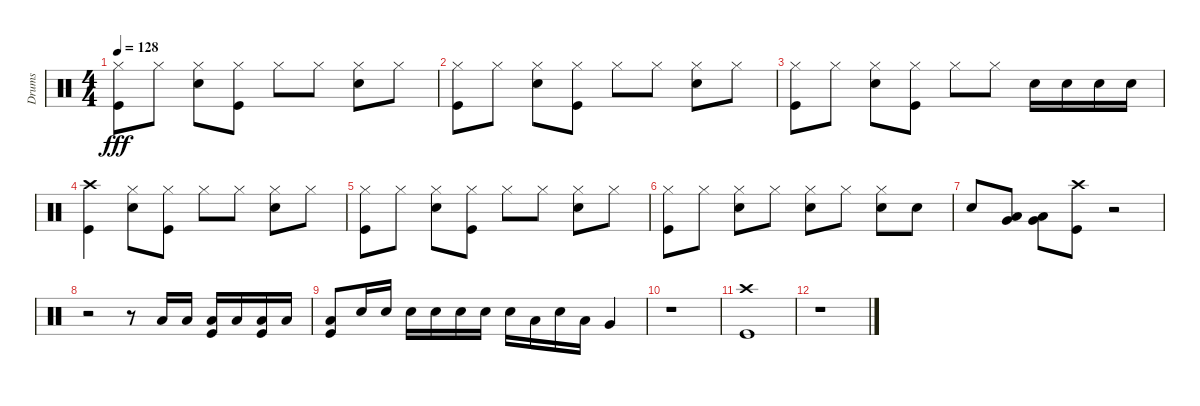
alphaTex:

\track ("Drums" "Drums") {instrument percussion}
\staff {score}
\articulation defaults
\ts (4 4)
\tempo 128
\clef neutral
\ks c
("Hi-Hat (closed)" "Kick (hit)").8{dy fff} "Hi-Hat (closed)".8 ("Hi-Hat (closed)" "Snare (hit) 2").8 ("Hi-Hat (closed)" "Kick (hit)").8 "Hi-Hat (closed)".8 "Hi-Hat (closed)".8 ("Hi-Hat (closed)" "Snare (hit) 2").8 "Hi-Hat (closed)".8 |
("Hi-Hat (closed)" "Kick (hit)").8 "Hi-Hat (closed)".8 ("Hi-Hat (closed)" "Snare (hit) 2").8 ("Hi-Hat (closed)" "Kick (hit)").8 "Hi-Hat (closed)".8 "Hi-Hat (closed)".8 ("Hi-Hat (closed)" "Snare (hit) 2").8 "Hi-Hat (closed)".8 |
("Hi-Hat (closed)" "Kick (hit)").8 "Hi-Hat (closed)".8 ("Hi-Hat (closed)" "Snare (hit) 2").8 ("Hi-Hat (closed)" "Kick (hit)").8 "Hi-Hat (closed)".8 "Hi-Hat (closed)".8 "Snare (hit) 2".16 "Snare (hit) 2".16 "Snare (hit) 2".16 "Snare (hit) 2".16 |
("Crash high (hit)" "Kick (hit)").4 ("Hi-Hat (closed)" "Snare (hit) 2").8 ("Hi-Hat (closed)" "Kick (hit)").8 "Hi-Hat (closed)".8 "Hi-Hat (closed)".8 ("Hi-Hat (closed)" "Snare (hit) 2").8 "Hi-Hat (closed)".8 |
("Hi-Hat (closed)" "Kick (hit)").8 "Hi-Hat (closed)".8 ("Hi-Hat (closed)" "Snare (hit) 2").8 ("Hi-Hat (closed)" "Kick (hit)").8 "Hi-Hat (closed)".8 "Hi-Hat (closed)".8 ("Hi-Hat (closed)" "Snare (hit) 2").8 "Hi-Hat (closed)".8 |
("Hi-Hat (closed)" "Kick (hit)").8 "Hi-Hat (closed)".8 ("Hi-Hat (closed)" "Snare (hit) 2").8 "Hi-Hat (closed)".8 ("Hi-Hat (closed)" "Snare (hit) 2").8 "Hi-Hat (closed)".8 ("Hi-Hat (closed)" "Snare (hit) 2").8 "Snare (hit) 2".8 |
"Snare (hit) 2".8 ("Low Tom (hit)" "Very Low Tom (hit)").8 ("Very Low Tom (hit)" "Low Floor Tom (hit)").8 ("Crash high (hit)" "Kick (hit)").8 r.2 |
r.2 r.8 "Low Tom (hit)".16 "Low Tom (hit)".16 ("Low Floor Tom (hit)" "Kick (hit)").16 "Low Tom (hit)".16 ("Low Floor Tom (hit)" "Kick (hit)").16 "Low Tom (hit)".16 |
("Low Floor Tom (hit)" "Kick (hit)").8 "Snare (hit) 2".16 "Snare (hit) 2".16 "Snare (hit) 2".16 "Snare (hit) 2".16 "Snare (hit) 2".16 "Snare (hit) 2".16 "Snare (hit) 2".16 "Low Tom (hit)".16 "Snare (hit) 2".16 "Low Tom (hit)".16 "Very Low Tom (hit)".4 |
r.1 |
("Crash high (hit)" "Kick (hit)").1 |
r.1
